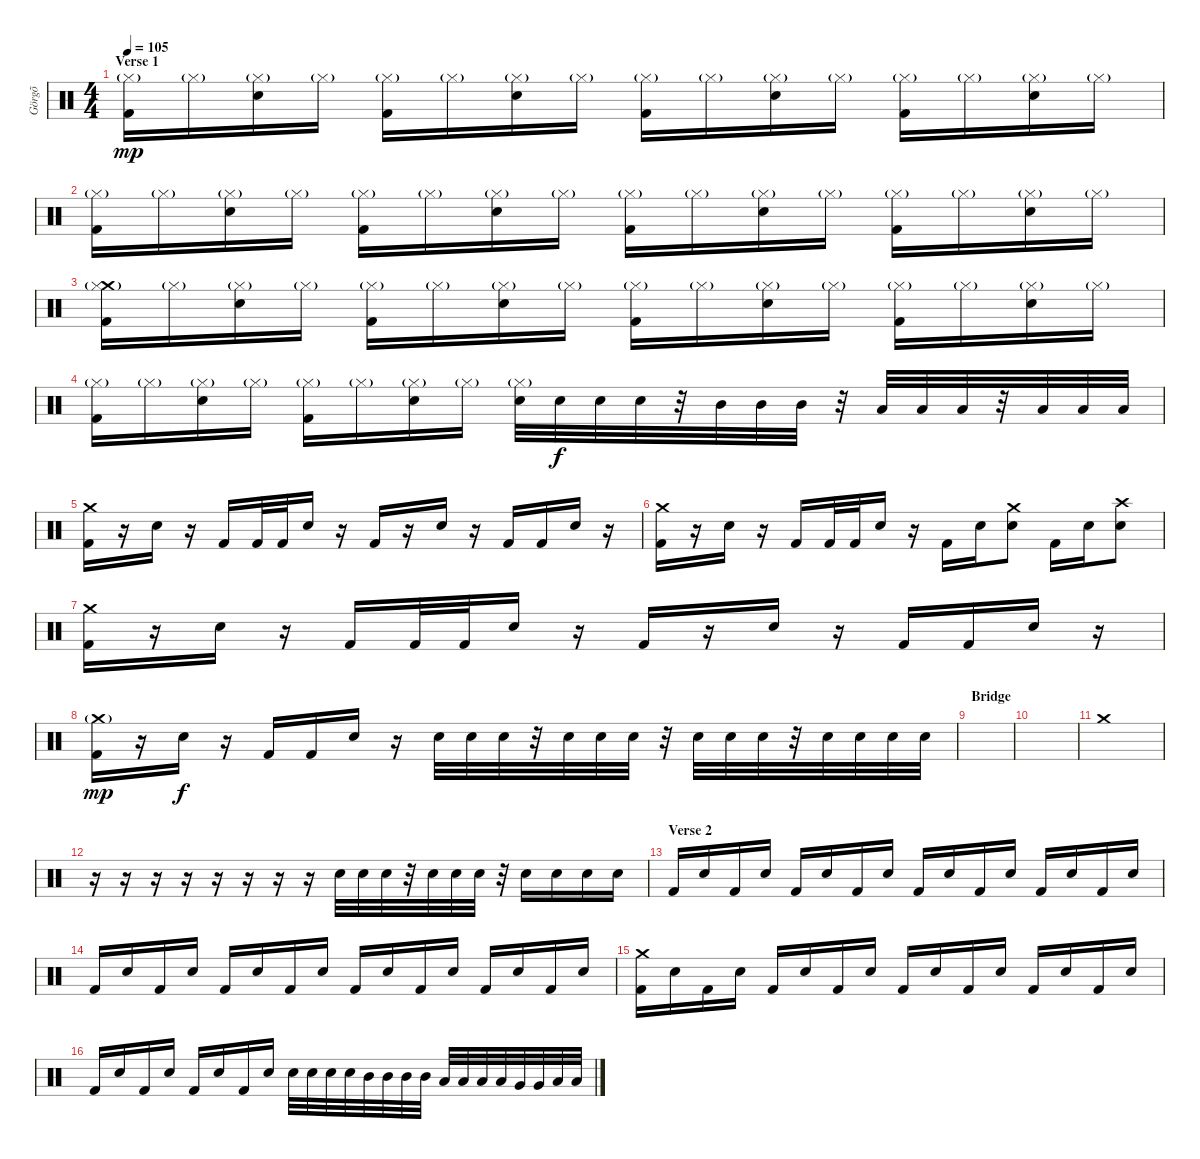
\track ("Görgõ" "Görgõ") {instrument percussion}
\staff {score}
\articulation defaults
\ts (4 4)
\section ("" "Verse 1")
\tempo 105
\clef neutral
\ks c
("Hi-Hat (closed)"{g} "Kick (hit) 2").16{dy mp} "Hi-Hat (closed)"{g}.16 ("Hi-Hat (closed)"{g} "Snare (hit) 2").16 "Hi-Hat (closed)"{g}.16 ("Hi-Hat (closed)"{g} "Kick (hit) 2").16 "Hi-Hat (closed)"{g}.16 ("Hi-Hat (closed)"{g} "Snare (hit) 2").16 "Hi-Hat (closed)"{g}.16 ("Hi-Hat (closed)"{g} "Kick (hit) 2").16 "Hi-Hat (closed)"{g}.16 ("Hi-Hat (closed)"{g} "Snare (hit) 2").16 "Hi-Hat (closed)"{g}.16 ("Hi-Hat (closed)"{g} "Kick (hit) 2").16 "Hi-Hat (closed)"{g}.16 ("Hi-Hat (closed)"{g} "Snare (hit) 2").16 "Hi-Hat (closed)"{g}.16 |
("Hi-Hat (closed)"{g} "Kick (hit) 2").16 "Hi-Hat (closed)"{g}.16 ("Hi-Hat (closed)"{g} "Snare (hit) 2").16 "Hi-Hat (closed)"{g}.16 ("Hi-Hat (closed)"{g} "Kick (hit) 2").16 "Hi-Hat (closed)"{g}.16 ("Hi-Hat (closed)"{g} "Snare (hit) 2").16 "Hi-Hat (closed)"{g}.16 ("Hi-Hat (closed)"{g} "Kick (hit) 2").16 "Hi-Hat (closed)"{g}.16 ("Hi-Hat (closed)"{g} "Snare (hit) 2").16 "Hi-Hat (closed)"{g}.16 ("Hi-Hat (closed)"{g} "Kick (hit) 2").16 "Hi-Hat (closed)"{g}.16 ("Hi-Hat (closed)"{g} "Snare (hit) 2").16 "Hi-Hat (closed)"{g}.16 |
("Crash medium (hit)" "Hi-Hat (closed)"{g} "Kick (hit) 2").16 "Hi-Hat (closed)"{g}.16 ("Hi-Hat (closed)"{g} "Snare (hit) 2").16 "Hi-Hat (closed)"{g}.16 ("Hi-Hat (closed)"{g} "Kick (hit) 2").16 "Hi-Hat (closed)"{g}.16 ("Hi-Hat (closed)"{g} "Snare (hit) 2").16 "Hi-Hat (closed)"{g}.16 ("Hi-Hat (closed)"{g} "Kick (hit) 2").16 "Hi-Hat (closed)"{g}.16 ("Hi-Hat (closed)"{g} "Snare (hit) 2").16 "Hi-Hat (closed)"{g}.16 ("Hi-Hat (closed)"{g} "Kick (hit) 2").16 "Hi-Hat (closed)"{g}.16 ("Hi-Hat (closed)"{g} "Snare (hit) 2").16 "Hi-Hat (closed)"{g}.16 |
("Hi-Hat (closed)"{g} "Kick (hit) 2").16 "Hi-Hat (closed)"{g}.16 ("Hi-Hat (closed)"{g} "Snare (hit) 2").16 "Hi-Hat (closed)"{g}.16 ("Hi-Hat (closed)"{g} "Kick (hit) 2").16 "Hi-Hat (closed)"{g}.16 ("Hi-Hat (closed)"{g} "Snare (hit) 2").16 "Hi-Hat (closed)"{g}.16 ("Hi-Hat (closed)"{g} "Snare (hit) 2").32 "Snare (hit) 2".32{dy f} "Snare (hit) 2".32 "Snare (hit) 2".32 r.32 "Mid Tom (hit)".32 "Mid Tom (hit)".32 "Mid Tom (hit)".32 r.32 "Low Tom (hit)".32 "Low Tom (hit)".32 "Low Tom (hit)".32 r.32 "Low Floor Tom (hit)".32 "Low Floor Tom (hit)".32 "Low Floor Tom (hit)".32 |
("Crash medium (hit)" "Kick (hit) 2").16 r.16 "Snare (hit) 2".16 r.16 "Kick (hit) 2".16 "Kick (hit) 2".32 "Kick (hit) 2".32 "Snare (hit) 2".16 r.16 "Kick (hit) 2".16 r.16 "Snare (hit) 2".16 r.16 "Kick (hit) 2".16 "Kick (hit) 2".16 "Snare (hit) 2".16 r.16 |
("Crash medium (hit)" "Kick (hit) 2").16 r.16 "Snare (hit) 2".16 r.16 "Kick (hit) 2".16 "Kick (hit) 2".32 "Kick (hit) 2".32 "Snare (hit) 2".16 r.16 "Kick (hit) 2".16 "Snare (hit) 2".16 ("Crash medium (hit)" "Snare (hit) 2").8 "Kick (hit) 2".16 "Snare (hit) 2".16 ("Crash high (hit)" "Snare (hit) 2").8 |
("Crash medium (hit)" "Kick (hit) 2").16 r.16 "Snare (hit) 2".16 r.16 "Kick (hit) 2".16 "Kick (hit) 2".32 "Kick (hit) 2".32 "Snare (hit) 2".16 r.16 "Kick (hit) 2".16 r.16 "Snare (hit) 2".16 r.16 "Kick (hit) 2".16 "Kick (hit) 2".16 "Snare (hit) 2".16 r.16 |
("Crash medium (hit)"{g} "Kick (hit) 2").16{dy mp} r.16 "Snare (hit) 2".16{dy f} r.16 "Kick (hit) 2".16 "Kick (hit) 2".16 "Snare (hit) 2".16 r.16 "Snare (hit) 2".32 "Snare (hit) 2".32 "Snare (hit) 2".32 r.32 "Snare (hit) 2".32 "Snare (hit) 2".32 "Snare (hit) 2".32 r.32 "Snare (hit) 2".32 "Snare (hit) 2".32 "Snare (hit) 2".32 r.32 "Snare (hit) 2".32 "Snare (hit) 2".32 "Snare (hit) 2".32 "Snare (hit) 2".32 |
\section ("" "Bridge")
|
|
"Crash medium (hit)".1 |
r.16 r.16 r.16 r.16 r.16 r.16 r.16 r.16 "Snare (hit) 2".32 "Snare (hit) 2".32 "Snare (hit) 2".32 r.32 "Snare (hit) 2".32 "Snare (hit) 2".32 "Snare (hit) 2".32 r.32 "Snare (hit) 2".16 "Snare (hit) 2".16 "Snare (hit) 2".16 "Snare (hit) 2".16 |
\section ("" "Verse 2")
"Kick (hit) 2".16 "Snare (hit) 2".16 "Kick (hit) 2".16 "Snare (hit) 2".16 "Kick (hit) 2".16 "Snare (hit) 2".16 "Kick (hit) 2".16 "Snare (hit) 2".16 "Kick (hit) 2".16 "Snare (hit) 2".16 "Kick (hit) 2".16 "Snare (hit) 2".16 "Kick (hit) 2".16 "Snare (hit) 2".16 "Kick (hit) 2".16 "Snare (hit) 2".16 |
"Kick (hit) 2".16 "Snare (hit) 2".16 "Kick (hit) 2".16 "Snare (hit) 2".16 "Kick (hit) 2".16 "Snare (hit) 2".16 "Kick (hit) 2".16 "Snare (hit) 2".16 "Kick (hit) 2".16 "Snare (hit) 2".16 "Kick (hit) 2".16 "Snare (hit) 2".16 "Kick (hit) 2".16 "Snare (hit) 2".16 "Kick (hit) 2".16 "Snare (hit) 2".16 |
("Crash medium (hit)" "Kick (hit) 2").16 "Snare (hit) 2".16 "Kick (hit) 2".16 "Snare (hit) 2".16 "Kick (hit) 2".16 "Snare (hit) 2".16 "Kick (hit) 2".16 "Snare (hit) 2".16 "Kick (hit) 2".16 "Snare (hit) 2".16 "Kick (hit) 2".16 "Snare (hit) 2".16 "Kick (hit) 2".16 "Snare (hit) 2".16 "Kick (hit) 2".16 "Snare (hit) 2".16 |
"Kick (hit) 2".16 "Snare (hit) 2".16 "Kick (hit) 2".16 "Snare (hit) 2".16 "Kick (hit) 2".16 "Snare (hit) 2".16 "Kick (hit) 2".16 "Snare (hit) 2".16 "Snare (hit) 2".32 "Snare (hit) 2".32 "Snare (hit) 2".32 "Snare (hit) 2".32 "Mid Tom (hit)".32 "Mid Tom (hit)".32 "Mid Tom (hit)".32 "Mid Tom (hit)".32 "Low Tom (hit)".32 "Low Tom (hit)".32 "Low Tom (hit)".32 "Low Tom (hit)".32 "Very Low Tom (hit)".32 "Very Low Tom (hit)".32 "Low Floor Tom (hit)".32 "Low Floor Tom (hit)".32
